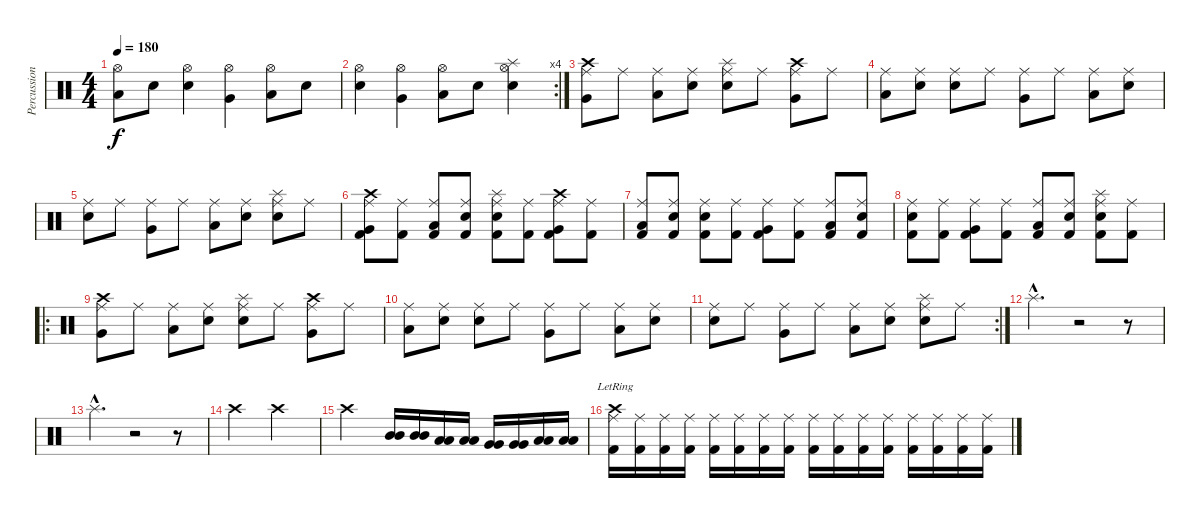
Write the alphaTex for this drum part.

\track ("Percussions" "Percussion") {instrument percussion}
\staff {score}
\articulation defaults
\ts (4 4)
\tempo 180
\clef neutral
\ks c
("Low Tom (hit)" "Hi-Hat (open)").8{dy f} "Electric Snare (hit)".8 ("Snare (hit) 2" "Hi-Hat (open)").4 ("Very Low Tom (hit)" "Hi-Hat (open)").4 ("Low Tom (hit)" "Hi-Hat (open)").8 "Electric Snare (hit)".8 |
\rc 4
("Snare (hit) 2" "Hi-Hat (open)").4 ("Very Low Tom (hit)" "Hi-Hat (open)").4 ("Low Tom (hit)" "Hi-Hat (open)").8 "Electric Snare (hit)".8 ("Snare (hit) 2" "Splash (hit)" "Hi-Hat (open)").4 |
("Very Low Tom (hit)" "Crash high (hit)" "Ride (middle)").8 "Ride (middle)".8 ("Low Tom (hit)" "Ride (middle)").8 ("Electric Snare (hit)" "Ride (middle)").8 ("Snare (hit) 2" "Splash (hit)" "Ride (middle)").8 "Ride (middle)".8 ("Very Low Tom (hit)" "Crash high (hit)" "Ride (middle)").8 "Ride (middle)".8 |
("Low Tom (hit)" "Ride (middle)").8 ("Electric Snare (hit)" "Ride (middle)").8 ("Snare (hit) 2" "Ride (middle)").8 "Ride (middle)".8 ("Very Low Tom (hit)" "Ride (middle)").8 "Ride (middle)".8 ("Low Tom (hit)" "Ride (middle)").8 ("Electric Snare (hit)" "Ride (middle)").8 |
("Snare (hit) 2" "Ride (middle)").8 "Ride (middle)".8 ("Very Low Tom (hit)" "Ride (middle)").8 "Ride (middle)".8 ("Low Tom (hit)" "Ride (middle)").8 ("Electric Snare (hit)" "Ride (middle)").8 ("Snare (hit) 2" "Splash (hit)" "Ride (middle)").8 "Ride (middle)".8 |
("Very Low Tom (hit)" "Crash high (hit)" "Kick (hit) 2" "Ride (middle)").8 ("Kick (hit) 2" "Ride (middle)").8 ("Low Tom (hit)" "Kick (hit) 2" "Ride (middle)").8 ("Electric Snare (hit)" "Kick (hit) 2" "Ride (middle)").8 ("Snare (hit) 2" "Splash (hit)" "Kick (hit) 2" "Ride (middle)").8 ("Kick (hit) 2" "Ride (middle)").8 ("Very Low Tom (hit)" "Crash high (hit)" "Kick (hit) 2" "Ride (middle)").8 ("Kick (hit) 2" "Ride (middle)").8 |
("Low Tom (hit)" "Kick (hit) 2" "Ride (middle)").8 ("Electric Snare (hit)" "Kick (hit) 2" "Ride (middle)").8 ("Snare (hit) 2" "Kick (hit) 2" "Ride (middle)").8 ("Kick (hit) 2" "Ride (middle)").8 ("Very Low Tom (hit)" "Kick (hit) 2" "Ride (middle)").8 ("Kick (hit) 2" "Ride (middle)").8 ("Low Tom (hit)" "Kick (hit) 2" "Ride (middle)").8 ("Electric Snare (hit)" "Kick (hit) 2" "Ride (middle)").8 |
("Snare (hit) 2" "Kick (hit) 2" "Ride (middle)").8 ("Kick (hit) 2" "Ride (middle)").8 ("Very Low Tom (hit)" "Kick (hit) 2" "Ride (middle)").8 ("Kick (hit) 2" "Ride (middle)").8 ("Low Tom (hit)" "Kick (hit) 2" "Ride (middle)").8 ("Electric Snare (hit)" "Kick (hit) 2" "Ride (middle)").8 ("Snare (hit) 2" "Splash (hit)" "Kick (hit) 2" "Ride (middle)").8 ("Kick (hit) 2" "Ride (middle)").8 |
\ro
("Very Low Tom (hit)" "Crash high (hit)" "Ride (middle)").8 "Ride (middle)".8 ("Low Tom (hit)" "Ride (middle)").8 ("Electric Snare (hit)" "Ride (middle)").8 ("Snare (hit) 2" "Splash (hit)" "Ride (middle)").8 "Ride (middle)".8 ("Very Low Tom (hit)" "Crash high (hit)" "Ride (middle)").8 "Ride (middle)".8 |
("Low Tom (hit)" "Ride (middle)").8 ("Electric Snare (hit)" "Ride (middle)").8 ("Snare (hit) 2" "Ride (middle)").8 "Ride (middle)".8 ("Very Low Tom (hit)" "Ride (middle)").8 "Ride (middle)".8 ("Low Tom (hit)" "Ride (middle)").8 ("Electric Snare (hit)" "Ride (middle)").8 |
\rc 2
("Snare (hit) 2" "Ride (middle)").8 "Ride (middle)".8 ("Very Low Tom (hit)" "Ride (middle)").8 "Ride (middle)".8 ("Low Tom (hit)" "Ride (middle)").8 ("Electric Snare (hit)" "Ride (middle)").8 ("Snare (hit) 2" "Splash (hit)" "Ride (middle)").8 "Ride (middle)".8 |
"Splash (hit)"{hac}.4{d} r.2 r.8 |
"Splash (hit)"{hac}.4{d} r.2 r.8 |
"Crash high (hit)".2 "Crash high (hit)".2 |
"Crash high (hit)".2 ("Mid Tom (hit)" "Mid Tom (hit)").16 ("Mid Tom (hit)" "Mid Tom (hit)").16 ("Low Tom (hit)" "Low Tom (hit)").16 ("Low Tom (hit)" "Low Tom (hit)").16 ("Very Low Tom (hit)" "Very Low Tom (hit)").16 ("Very Low Tom (hit)" "Very Low Tom (hit)").16 ("Low Floor Tom (hit)" "Low Floor Tom (hit)").16 ("Low Floor Tom (hit)" "Low Floor Tom (hit)").16 |
("Kick (hit) 2" "Ride (middle)" "Crash high (hit)"{lr}).16 ("Kick (hit) 2" "Ride (middle)").16 ("Kick (hit) 2" "Ride (middle)").16 ("Kick (hit) 2" "Ride (middle)").16 ("Kick (hit) 2" "Ride (middle)").16 ("Kick (hit) 2" "Ride (middle)").16 ("Kick (hit) 2" "Ride (middle)").16 ("Kick (hit) 2" "Ride (middle)").16 ("Kick (hit) 2" "Ride (middle)").16 ("Kick (hit) 2" "Ride (middle)").16 ("Kick (hit) 2" "Ride (middle)").16 ("Kick (hit) 2" "Ride (middle)").16 ("Kick (hit) 2" "Ride (middle)").16 ("Kick (hit) 2" "Ride (middle)").16 ("Kick (hit) 2" "Ride (middle)").16 ("Kick (hit) 2" "Ride (middle)").16
